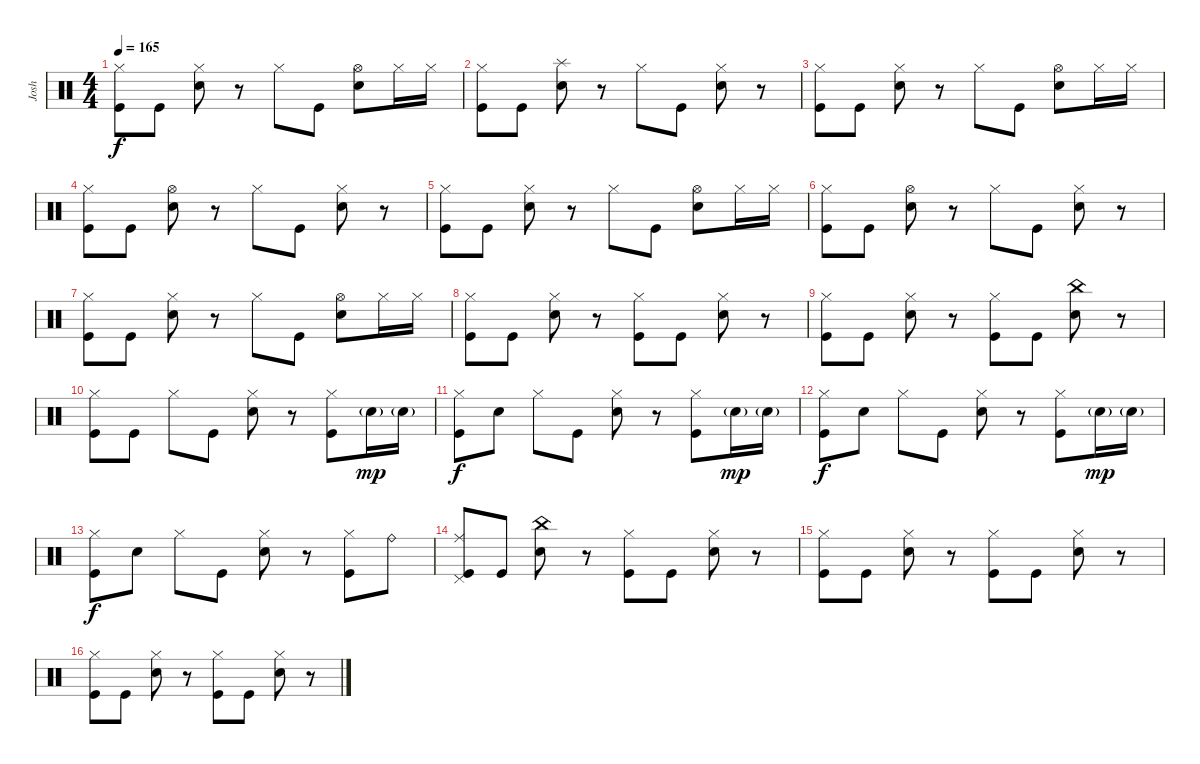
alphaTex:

\track ("Josh" "Josh") {instrument percussion}
\staff {score}
\articulation defaults
\ts (4 4)
\tempo 165
\clef neutral
\ks c
("Hi-Hat (closed)" "Kick (hit)").8{dy f} "Kick (hit)".8 ("Hi-Hat (closed)" "Snare (hit) 2").8 r.8 "Hi-Hat (closed)".8 "Kick (hit)".8 ("Hi-Hat (open)" "Snare (hit) 2").8 "Hi-Hat (closed)".16 "Hi-Hat (closed)".16 |
("Hi-Hat (closed)" "Kick (hit)").8 "Kick (hit)".8 ("Splash (hit)" "Snare (hit) 2").8 r.8 "Hi-Hat (closed)".8 "Kick (hit)".8 ("Hi-Hat (closed)" "Snare (hit) 2").8 r.8 |
("Hi-Hat (closed)" "Kick (hit)").8 "Kick (hit)".8 ("Hi-Hat (closed)" "Snare (hit) 2").8 r.8 "Hi-Hat (closed)".8 "Kick (hit)".8 ("Hi-Hat (open)" "Snare (hit) 2").8 "Hi-Hat (closed)".16 "Hi-Hat (closed)".16 |
("Hi-Hat (closed)" "Kick (hit)").8 "Kick (hit)".8 ("Hi-Hat (open)" "Snare (hit) 2").8 r.8 "Hi-Hat (closed)".8 "Kick (hit)".8 ("Hi-Hat (closed)" "Snare (hit) 2").8 r.8 |
("Hi-Hat (closed)" "Kick (hit)").8 "Kick (hit)".8 ("Hi-Hat (closed)" "Snare (hit) 2").8 r.8 "Hi-Hat (closed)".8 "Kick (hit)".8 ("Hi-Hat (open)" "Snare (hit) 2").8 "Hi-Hat (closed)".16 "Hi-Hat (closed)".16 |
("Hi-Hat (closed)" "Kick (hit)").8 "Kick (hit)".8 ("Hi-Hat (open)" "Snare (hit) 2").8 r.8 "Hi-Hat (closed)".8 "Kick (hit)".8 ("Hi-Hat (closed)" "Snare (hit) 2").8 r.8 |
("Hi-Hat (closed)" "Kick (hit)").8 "Kick (hit)".8 ("Hi-Hat (closed)" "Snare (hit) 2").8 r.8 "Hi-Hat (closed)".8 "Kick (hit)".8 ("Hi-Hat (open)" "Snare (hit) 2").8 "Hi-Hat (closed)".16 "Hi-Hat (closed)".16 |
("Hi-Hat (closed)" "Kick (hit)").8 "Kick (hit)".8 ("Hi-Hat (closed)" "Snare (hit) 2").8 r.8 ("Hi-Hat (closed)" "Kick (hit)").8 "Kick (hit)".8 ("Hi-Hat (closed)" "Snare (hit) 2").8 r.8 |
("Hi-Hat (closed)" "Kick (hit)").8 "Kick (hit)".8 ("Hi-Hat (closed)" "Snare (hit) 2").8 r.8 ("Hi-Hat (closed)" "Kick (hit)").8 "Kick (hit)".8 ("China (hit)" "Snare (hit) 2").8 r.8 |
("Hi-Hat (closed)" "Kick (hit)").8 "Kick (hit)".8 "Hi-Hat (closed)".8 "Kick (hit)".8 ("Hi-Hat (closed)" "Snare (hit) 2").8 r.8 ("Hi-Hat (closed)" "Kick (hit)").8 "Snare (hit) 2"{g}.16{dy mp} "Snare (hit) 2"{g}.16 |
("Hi-Hat (closed)" "Kick (hit)").8{dy f} "Snare (hit) 2".8 "Hi-Hat (closed)".8 "Kick (hit)".8 ("Hi-Hat (closed)" "Snare (hit) 2").8 r.8 ("Hi-Hat (closed)" "Kick (hit)").8 "Snare (hit) 2"{g}.16{dy mp} "Snare (hit) 2"{g}.16 |
("Hi-Hat (closed)" "Kick (hit)").8{dy f} "Snare (hit) 2".8 "Hi-Hat (closed)".8 "Kick (hit)".8 ("Hi-Hat (closed)" "Snare (hit) 2").8 r.8 ("Hi-Hat (closed)" "Kick (hit)").8 "Snare (hit) 2"{g}.16{dy mp} "Snare (hit) 2"{g}.16 |
("Hi-Hat (closed)" "Kick (hit)").8{dy f} "Snare (hit) 2".8 "Hi-Hat (closed)".8 "Kick (hit)".8 ("Hi-Hat (closed)" "Snare (hit) 2").8 r.8 ("Hi-Hat (closed)" "Kick (hit)").8 "Ride (bell)".8 |
("Ride (middle)" "Pedal Hi-Hat (hit)" "Kick (hit)").8 "Kick (hit)".8 ("China (hit)" "Snare (hit) 2").8 r.8 ("Hi-Hat (closed)" "Kick (hit)").8 "Kick (hit)".8 ("Hi-Hat (closed)" "Snare (hit) 2").8 r.8 |
("Hi-Hat (closed)" "Kick (hit)").8 "Kick (hit)".8 ("Hi-Hat (closed)" "Snare (hit) 2").8 r.8 ("Hi-Hat (closed)" "Kick (hit)").8 "Kick (hit)".8 ("Hi-Hat (closed)" "Snare (hit) 2").8 r.8 |
("Hi-Hat (closed)" "Kick (hit)").8 "Kick (hit)".8 ("Hi-Hat (closed)" "Snare (hit) 2").8 r.8 ("Hi-Hat (closed)" "Kick (hit)").8 "Kick (hit)".8 ("Hi-Hat (closed)" "Snare (hit) 2").8 r.8
